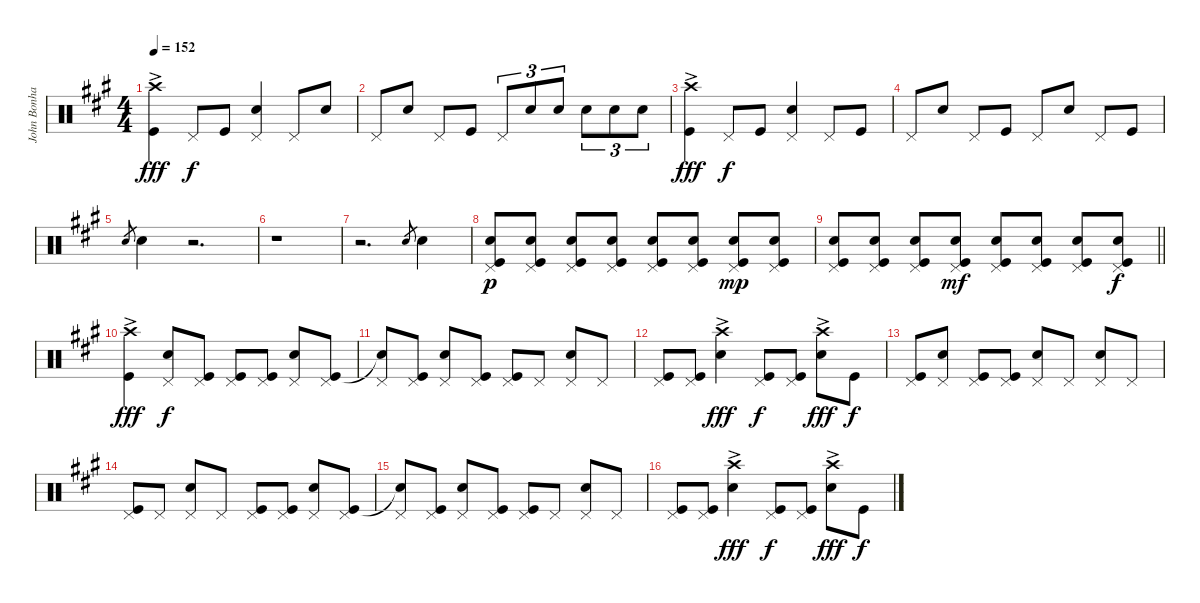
\track ("John Bonham" "John Bonha") {instrument percussion}
\staff {score}
\articulation defaults
\ts (4 4)
\tempo 152
\clef neutral
\ks a
("Crash high (hit)"{ac} "Kick (hit)").4{dy fff} "Pedal Hi-Hat (hit)".8{dy f} "Kick (hit)".8 ("Pedal Hi-Hat (hit)" "Snare (hit) 2").4 "Pedal Hi-Hat (hit)".8 "Snare (hit) 2".8 |
"Pedal Hi-Hat (hit)".8 "Snare (hit) 2".8 "Pedal Hi-Hat (hit)".8 "Kick (hit)".8 "Pedal Hi-Hat (hit)".8{tu (3 2)} "Snare (hit) 2".8{tu (3 2)} "Snare (hit) 2".8{tu (3 2)} "Snare (hit) 2".8{tu (3 2)} "Snare (hit) 2".8{tu (3 2)} "Snare (hit) 2".8{tu (3 2)} |
("Crash high (hit)"{ac} "Kick (hit)").4{dy fff} "Pedal Hi-Hat (hit)".8{dy f} "Kick (hit)".8 ("Pedal Hi-Hat (hit)" "Snare (hit) 2").4 "Pedal Hi-Hat (hit)".8 "Kick (hit)".8 |
"Pedal Hi-Hat (hit)".8 "Snare (hit) 2".8 "Pedal Hi-Hat (hit)".8 "Kick (hit)".8 "Pedal Hi-Hat (hit)".8 "Snare (hit) 2".8 "Pedal Hi-Hat (hit)".8 "Kick (hit)".8 |
"Snare (hit) 2".8{gr} "Snare (hit) 2".4 r.2{d} |
r.1 |
r.2{d} "Snare (hit) 2".8{gr} "Snare (hit) 2".4 |
("Pedal Hi-Hat (hit)" "Snare (hit) 2" "Kick (hit)").8{dy p} ("Pedal Hi-Hat (hit)" "Snare (hit) 2" "Kick (hit)").8 ("Pedal Hi-Hat (hit)" "Snare (hit) 2" "Kick (hit)").8 ("Pedal Hi-Hat (hit)" "Snare (hit) 2" "Kick (hit)").8 ("Pedal Hi-Hat (hit)" "Snare (hit) 2" "Kick (hit)").8 ("Pedal Hi-Hat (hit)" "Snare (hit) 2" "Kick (hit)").8 ("Pedal Hi-Hat (hit)" "Snare (hit) 2" "Kick (hit)").8{dy mp} ("Pedal Hi-Hat (hit)" "Snare (hit) 2" "Kick (hit)").8 |
\barLineRight lightlight
("Pedal Hi-Hat (hit)" "Snare (hit) 2" "Kick (hit)").8 ("Pedal Hi-Hat (hit)" "Snare (hit) 2" "Kick (hit)").8 ("Pedal Hi-Hat (hit)" "Snare (hit) 2" "Kick (hit)").8 ("Pedal Hi-Hat (hit)" "Snare (hit) 2" "Kick (hit)").8{dy mf} ("Pedal Hi-Hat (hit)" "Snare (hit) 2" "Kick (hit)").8 ("Pedal Hi-Hat (hit)" "Snare (hit) 2" "Kick (hit)").8 ("Pedal Hi-Hat (hit)" "Snare (hit) 2" "Kick (hit)").8 ("Pedal Hi-Hat (hit)" "Snare (hit) 2" "Kick (hit)").8{dy f} |
("Crash high (hit)"{ac} "Kick (hit)").4{dy fff} ("Pedal Hi-Hat (hit)" "Snare (hit) 2").8{dy f} ("Pedal Hi-Hat (hit)" "Kick (hit)").8 ("Pedal Hi-Hat (hit)" "Kick (hit)").8 ("Pedal Hi-Hat (hit)" "Kick (hit)").8 ("Pedal Hi-Hat (hit)" "Snare (hit) 2").8 ("Pedal Hi-Hat (hit)" "Kick (hit)").8 |
("Pedal Hi-Hat (hit)" "Snare (hit)"{t}).8 ("Pedal Hi-Hat (hit)" "Kick (hit)").8 ("Pedal Hi-Hat (hit)" "Snare (hit) 2").8 ("Pedal Hi-Hat (hit)" "Kick (hit)").8 ("Pedal Hi-Hat (hit)" "Kick (hit)").8 "Pedal Hi-Hat (hit)".8 ("Pedal Hi-Hat (hit)" "Snare (hit) 2").8 "Pedal Hi-Hat (hit)".8 |
("Pedal Hi-Hat (hit)" "Kick (hit)").8 ("Pedal Hi-Hat (hit)" "Kick (hit)").8 ("Crash high (hit)"{ac} "Snare (hit) 2").4{dy fff} ("Pedal Hi-Hat (hit)" "Kick (hit)").8{dy f} ("Pedal Hi-Hat (hit)" "Kick (hit)").8 ("Crash high (hit)"{ac} "Snare (hit) 2").8{dy fff} "Kick (hit)".8{dy f} |
("Pedal Hi-Hat (hit)" "Kick (hit)").8 ("Pedal Hi-Hat (hit)" "Snare (hit) 2").8 ("Pedal Hi-Hat (hit)" "Kick (hit)").8 ("Pedal Hi-Hat (hit)" "Kick (hit)").8 ("Pedal Hi-Hat (hit)" "Snare (hit) 2").8 "Pedal Hi-Hat (hit)".8 ("Pedal Hi-Hat (hit)" "Snare (hit) 2").8 "Pedal Hi-Hat (hit)".8 |
("Pedal Hi-Hat (hit)" "Kick (hit)").8 "Pedal Hi-Hat (hit)".8 ("Pedal Hi-Hat (hit)" "Snare (hit) 2").8 "Pedal Hi-Hat (hit)".8 ("Pedal Hi-Hat (hit)" "Kick (hit)").8 ("Pedal Hi-Hat (hit)" "Kick (hit)").8 ("Pedal Hi-Hat (hit)" "Snare (hit) 2").8 ("Pedal Hi-Hat (hit)" "Kick (hit)").8 |
("Pedal Hi-Hat (hit)" "Snare (hit)"{t}).8 ("Pedal Hi-Hat (hit)" "Kick (hit)").8 ("Pedal Hi-Hat (hit)" "Snare (hit) 2").8 ("Pedal Hi-Hat (hit)" "Kick (hit)").8 ("Pedal Hi-Hat (hit)" "Kick (hit)").8 "Pedal Hi-Hat (hit)".8 ("Pedal Hi-Hat (hit)" "Snare (hit) 2").8 "Pedal Hi-Hat (hit)".8 |
("Pedal Hi-Hat (hit)" "Kick (hit)").8 ("Pedal Hi-Hat (hit)" "Kick (hit)").8 ("Crash high (hit)"{ac} "Snare (hit) 2").4{dy fff} ("Pedal Hi-Hat (hit)" "Kick (hit)").8{dy f} ("Pedal Hi-Hat (hit)" "Kick (hit)").8 ("Crash high (hit)"{ac} "Snare (hit) 2").8{dy fff} "Kick (hit)".8{dy f}
